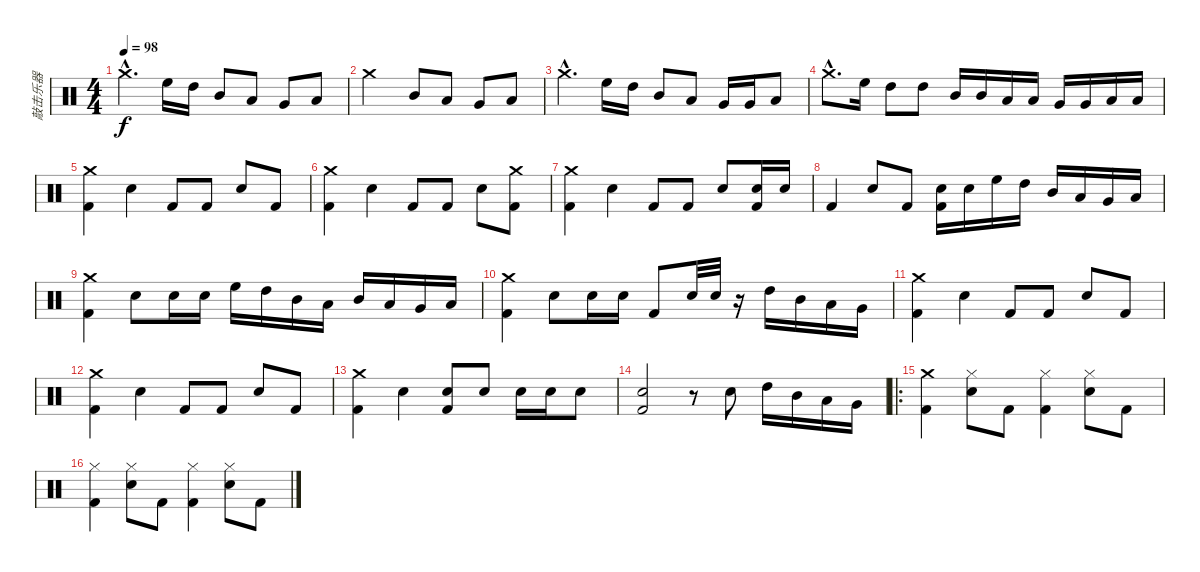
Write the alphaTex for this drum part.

\track ("敲击乐器" "敲击乐器") {instrument percussion}
\staff {score}
\articulation defaults
\ts (4 4)
\tempo 98
\clef neutral
\ks c "Crash medium (hit)"{hac}.4{d dy f} "High Floor Tom (hit)".16 "High Tom (hit)".16 "Mid Tom (hit)".8 "Low Tom (hit)".8 "Very Low Tom (hit)".8 "Low Floor Tom (hit)".8
|
"Crash medium (hit)".2 "Mid Tom (hit)".8 "Low Tom (hit)".8 "Very Low Tom (hit)".8 "Low Floor Tom (hit)".8 |
"Crash medium (hit)"{hac}.4{d} "High Floor Tom (hit)".16 "High Tom (hit)".16 "Mid Tom (hit)".8 "Low Tom (hit)".8 "Very Low Tom (hit)".16 "Very Low Tom (hit)".16 "Low Floor Tom (hit)".8 |
"Crash medium (hit)"{hac}.8{d} "High Floor Tom (hit)".16 "High Tom (hit)".8 "High Tom (hit)".8 "Mid Tom (hit)".16 "Mid Tom (hit)".16 "Low Tom (hit)".16 "Low Tom (hit)".16 "Very Low Tom (hit)".16 "Very Low Tom (hit)".16 "Low Floor Tom (hit)".16 "Low Floor Tom (hit)".16 |
("Crash medium (hit)" "Kick (hit) 2").4 "Snare (hit) 2".4 "Kick (hit) 2".8 "Kick (hit) 2".8 "Snare (hit) 2".8 "Kick (hit) 2".8 |
("Crash medium (hit)" "Kick (hit) 2").4 "Snare (hit) 2".4 "Kick (hit) 2".8 "Kick (hit) 2".8 "Snare (hit) 2".8 ("Crash medium (hit)" "Kick (hit) 2").8 |
("Crash medium (hit)" "Kick (hit) 2").4 "Snare (hit) 2".4 "Kick (hit) 2".8 "Kick (hit) 2".8 "Snare (hit) 2".8 ("Snare (hit) 2" "Kick (hit) 2").16 "Snare (hit) 2".16 |
"Kick (hit) 2".4 "Snare (hit) 2".8 "Kick (hit) 2".8 ("Snare (hit) 2" "Kick (hit) 2").16 "Snare (hit) 2".16 "High Floor Tom (hit)".16 "High Tom (hit)".16 "Mid Tom (hit)".16 "Low Tom (hit)".16 "Very Low Tom (hit)".16 "Low Floor Tom (hit)".16 |
("Crash medium (hit)" "Kick (hit) 2").4 "Snare (hit) 2".8 "Snare (hit) 2".16 "Snare (hit) 2".16 "High Floor Tom (hit)".16 "High Tom (hit)".16 "Mid Tom (hit)".16 "Low Tom (hit)".16 "Mid Tom (hit)".16 "Low Tom (hit)".16 "Very Low Tom (hit)".16 "Low Floor Tom (hit)".16 |
("Crash medium (hit)" "Kick (hit) 2").4 "Snare (hit) 2".8 "Snare (hit) 2".16 "Snare (hit) 2".16 "Kick (hit) 2".8 "Snare (hit) 2".32 "Snare (hit) 2".32 r.16 "High Tom (hit)".16 "Mid Tom (hit)".16 "Low Tom (hit)".16 "Very Low Tom (hit)".16 |
("Crash medium (hit)" "Kick (hit) 2").4 "Snare (hit) 2".4 "Kick (hit) 2".8 "Kick (hit) 2".8 "Snare (hit) 2".8 "Kick (hit) 2".8 |
("Crash medium (hit)" "Kick (hit) 2").4 "Snare (hit) 2".4 "Kick (hit) 2".8 "Kick (hit) 2".8 "Snare (hit) 2".8 "Kick (hit) 2".8 |
("Crash medium (hit)" "Kick (hit) 2").4 "Snare (hit) 2".4 ("Snare (hit) 2" "Kick (hit) 2").8 "Snare (hit) 2".8 "Snare (hit) 2".16 "Snare (hit) 2".16 "Snare (hit) 2".8 |
("Snare (hit) 2" "Kick (hit) 2").2 r.8 "Snare (hit) 2".8 "High Tom (hit)".16 "Mid Tom (hit)".16 "Low Tom (hit)".16 "Very Low Tom (hit)".16 |
\ro
("Crash medium (hit)" "Kick (hit) 2").4 ("Hi-Hat (closed)" "Snare (hit) 2").8 "Kick (hit) 2".8 ("Hi-Hat (closed)" "Kick (hit) 2").4 ("Hi-Hat (closed)" "Snare (hit) 2").8 "Kick (hit) 2".8 |
("Hi-Hat (closed)" "Kick (hit) 2").4 ("Hi-Hat (closed)" "Snare (hit) 2").8 "Kick (hit) 2".8 ("Hi-Hat (closed)" "Kick (hit) 2").4 ("Hi-Hat (closed)" "Snare (hit) 2").8 "Kick (hit) 2".8
